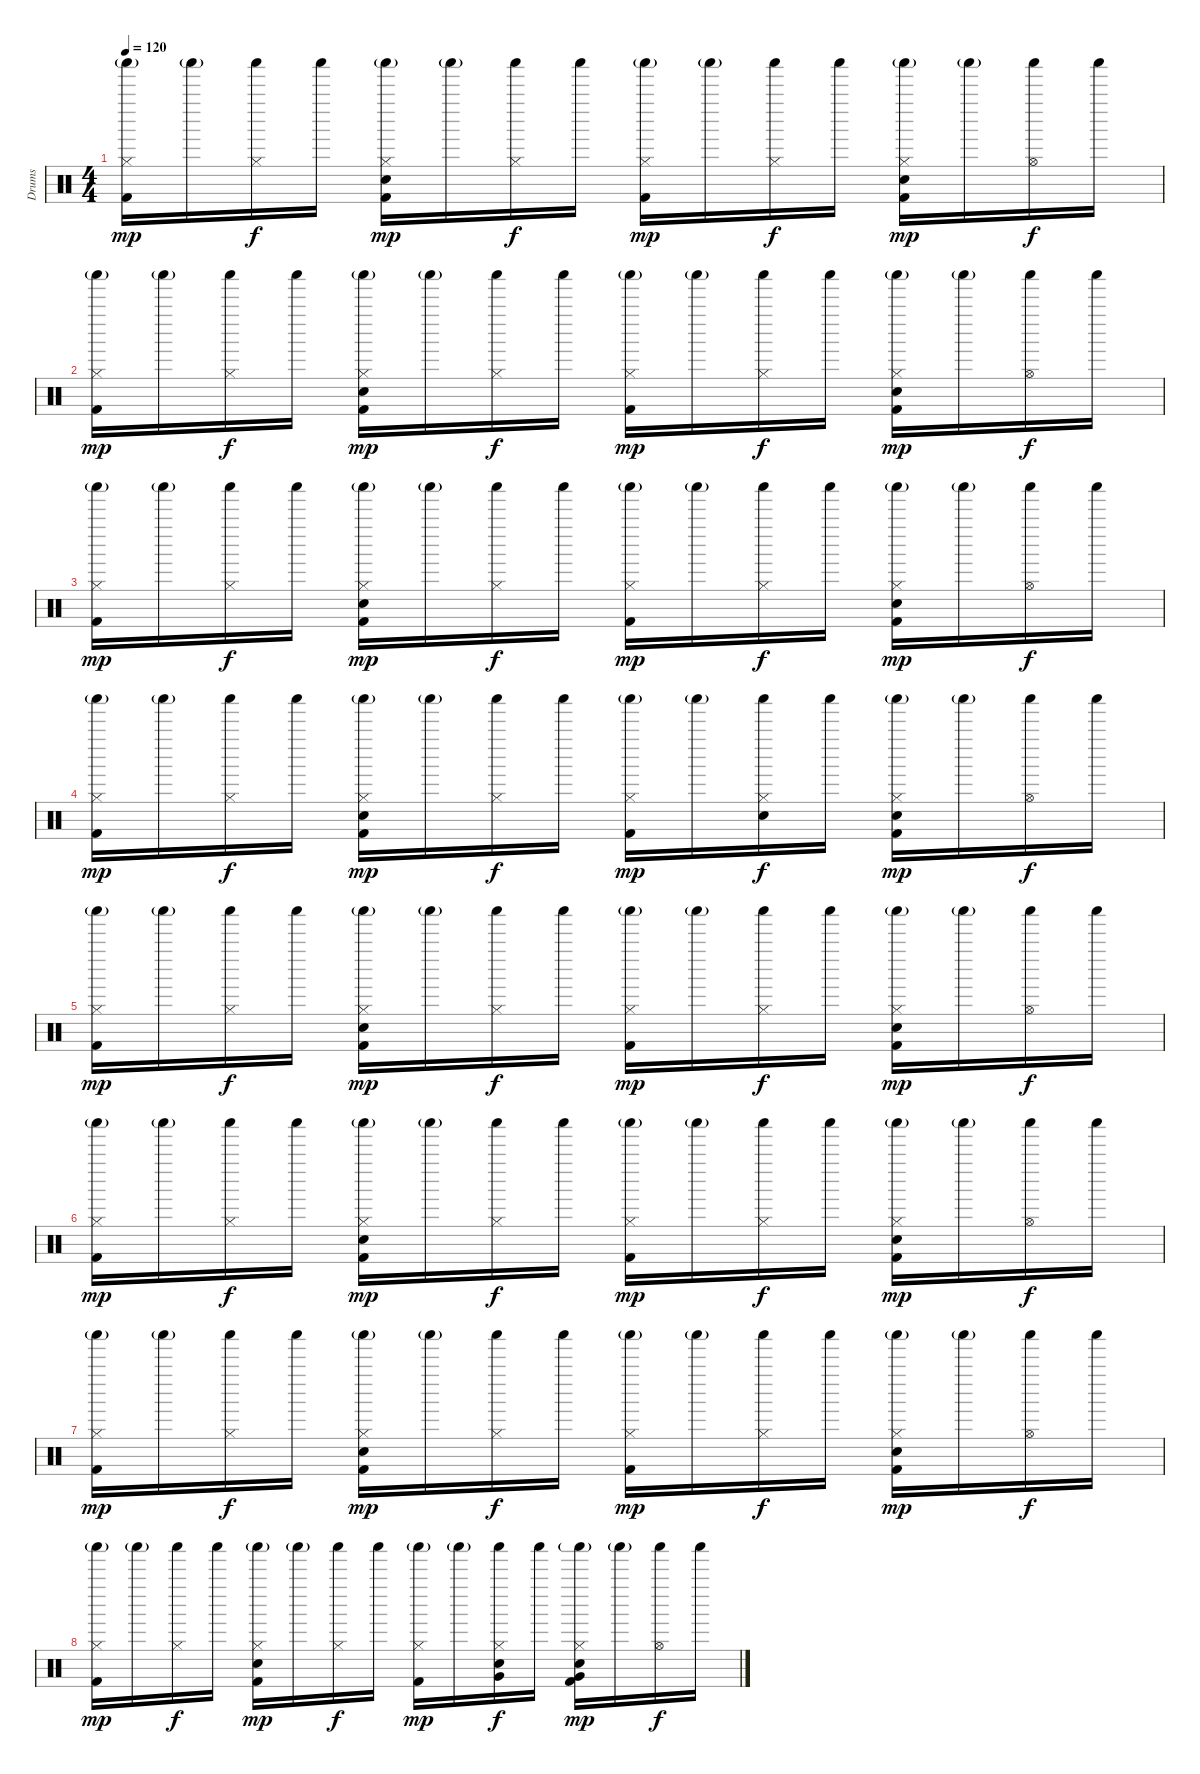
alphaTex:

\track ("Drums" "Drums") {instrument percussion}
\staff {score}
\articulation defaults
\ts (4 4)
\tempo 120
\clef neutral
\ks c
("Hi-Hat (closed)" "Shaker (hit)"{g} "Kick (hit) 2").16{dy mp} "Shaker (hit)"{g}.16 ("Hi-Hat (closed)" "Shaker (hit)").16{dy f} "Shaker (hit)".16 ("Hi-Hat (closed)" "Shaker (hit)"{g} "Electric Snare (hit)" "Kick (hit) 2").16{dy mp} "Shaker (hit)"{g}.16 ("Hi-Hat (closed)" "Shaker (hit)").16{dy f} "Shaker (hit)".16 ("Hi-Hat (closed)" "Shaker (hit)"{g} "Kick (hit) 2").16{dy mp} "Shaker (hit)"{g}.16 ("Hi-Hat (closed)" "Shaker (hit)").16{dy f} "Shaker (hit)".16 ("Hi-Hat (closed)" "Shaker (hit)"{g} "Electric Snare (hit)" "Kick (hit) 2").16{dy mp} "Shaker (hit)"{g}.16 ("Hi-Hat (open)" "Shaker (hit)").16{dy f} "Shaker (hit)".16 |
("Hi-Hat (closed)" "Shaker (hit)"{g} "Kick (hit) 2").16{dy mp} "Shaker (hit)"{g}.16 ("Hi-Hat (closed)" "Shaker (hit)").16{dy f} "Shaker (hit)".16 ("Hi-Hat (closed)" "Shaker (hit)"{g} "Electric Snare (hit)" "Kick (hit) 2").16{dy mp} "Shaker (hit)"{g}.16 ("Hi-Hat (closed)" "Shaker (hit)").16{dy f} "Shaker (hit)".16 ("Hi-Hat (closed)" "Shaker (hit)"{g} "Kick (hit) 2").16{dy mp} "Shaker (hit)"{g}.16 ("Hi-Hat (closed)" "Shaker (hit)").16{dy f} "Shaker (hit)".16 ("Hi-Hat (closed)" "Shaker (hit)"{g} "Electric Snare (hit)" "Kick (hit) 2").16{dy mp} "Shaker (hit)"{g}.16 ("Hi-Hat (open)" "Shaker (hit)").16{dy f} "Shaker (hit)".16 |
("Hi-Hat (closed)" "Shaker (hit)"{g} "Kick (hit) 2").16{dy mp} "Shaker (hit)"{g}.16 ("Hi-Hat (closed)" "Shaker (hit)").16{dy f} "Shaker (hit)".16 ("Hi-Hat (closed)" "Shaker (hit)"{g} "Electric Snare (hit)" "Kick (hit) 2").16{dy mp} "Shaker (hit)"{g}.16 ("Hi-Hat (closed)" "Shaker (hit)").16{dy f} "Shaker (hit)".16 ("Hi-Hat (closed)" "Shaker (hit)"{g} "Kick (hit) 2").16{dy mp} "Shaker (hit)"{g}.16 ("Hi-Hat (closed)" "Shaker (hit)").16{dy f} "Shaker (hit)".16 ("Hi-Hat (closed)" "Shaker (hit)"{g} "Electric Snare (hit)" "Kick (hit) 2").16{dy mp} "Shaker (hit)"{g}.16 ("Hi-Hat (open)" "Shaker (hit)").16{dy f} "Shaker (hit)".16 |
("Hi-Hat (closed)" "Shaker (hit)"{g} "Kick (hit) 2").16{dy mp} "Shaker (hit)"{g}.16 ("Hi-Hat (closed)" "Shaker (hit)").16{dy f} "Shaker (hit)".16 ("Hi-Hat (closed)" "Shaker (hit)"{g} "Electric Snare (hit)" "Kick (hit) 2").16{dy mp} "Shaker (hit)"{g}.16 ("Hi-Hat (closed)" "Shaker (hit)").16{dy f} "Shaker (hit)".16 ("Hi-Hat (closed)" "Shaker (hit)"{g} "Kick (hit) 2").16{dy mp} "Shaker (hit)"{g}.16 ("Hi-Hat (closed)" "Shaker (hit)" "Electric Snare (hit)").16{dy f} "Shaker (hit)".16 ("Hi-Hat (closed)" "Shaker (hit)"{g} "Electric Snare (hit)" "Kick (hit) 2").16{dy mp} "Shaker (hit)"{g}.16 ("Hi-Hat (open)" "Shaker (hit)").16{dy f} "Shaker (hit)".16 |
("Hi-Hat (closed)" "Shaker (hit)"{g} "Kick (hit) 2").16{dy mp} "Shaker (hit)"{g}.16 ("Hi-Hat (closed)" "Shaker (hit)").16{dy f} "Shaker (hit)".16 ("Hi-Hat (closed)" "Shaker (hit)"{g} "Electric Snare (hit)" "Kick (hit) 2").16{dy mp} "Shaker (hit)"{g}.16 ("Hi-Hat (closed)" "Shaker (hit)").16{dy f} "Shaker (hit)".16 ("Hi-Hat (closed)" "Shaker (hit)"{g} "Kick (hit) 2").16{dy mp} "Shaker (hit)"{g}.16 ("Hi-Hat (closed)" "Shaker (hit)").16{dy f} "Shaker (hit)".16 ("Hi-Hat (closed)" "Shaker (hit)"{g} "Electric Snare (hit)" "Kick (hit) 2").16{dy mp} "Shaker (hit)"{g}.16 ("Hi-Hat (open)" "Shaker (hit)").16{dy f} "Shaker (hit)".16 |
("Hi-Hat (closed)" "Shaker (hit)"{g} "Kick (hit) 2").16{dy mp} "Shaker (hit)"{g}.16 ("Hi-Hat (closed)" "Shaker (hit)").16{dy f} "Shaker (hit)".16 ("Hi-Hat (closed)" "Shaker (hit)"{g} "Electric Snare (hit)" "Kick (hit) 2").16{dy mp} "Shaker (hit)"{g}.16 ("Hi-Hat (closed)" "Shaker (hit)").16{dy f} "Shaker (hit)".16 ("Hi-Hat (closed)" "Shaker (hit)"{g} "Kick (hit) 2").16{dy mp} "Shaker (hit)"{g}.16 ("Hi-Hat (closed)" "Shaker (hit)").16{dy f} "Shaker (hit)".16 ("Hi-Hat (closed)" "Shaker (hit)"{g} "Electric Snare (hit)" "Kick (hit) 2").16{dy mp} "Shaker (hit)"{g}.16 ("Hi-Hat (open)" "Shaker (hit)").16{dy f} "Shaker (hit)".16 |
("Hi-Hat (closed)" "Shaker (hit)"{g} "Kick (hit) 2").16{dy mp} "Shaker (hit)"{g}.16 ("Hi-Hat (closed)" "Shaker (hit)").16{dy f} "Shaker (hit)".16 ("Hi-Hat (closed)" "Shaker (hit)"{g} "Electric Snare (hit)" "Kick (hit) 2").16{dy mp} "Shaker (hit)"{g}.16 ("Hi-Hat (closed)" "Shaker (hit)").16{dy f} "Shaker (hit)".16 ("Hi-Hat (closed)" "Shaker (hit)"{g} "Kick (hit) 2").16{dy mp} "Shaker (hit)"{g}.16 ("Hi-Hat (closed)" "Shaker (hit)").16{dy f} "Shaker (hit)".16 ("Hi-Hat (closed)" "Shaker (hit)"{g} "Electric Snare (hit)" "Kick (hit) 2").16{dy mp} "Shaker (hit)"{g}.16 ("Hi-Hat (open)" "Shaker (hit)").16{dy f} "Shaker (hit)".16 |
("Hi-Hat (closed)" "Shaker (hit)"{g} "Kick (hit) 2").16{dy mp} "Shaker (hit)"{g}.16 ("Hi-Hat (closed)" "Shaker (hit)").16{dy f} "Shaker (hit)".16 ("Hi-Hat (closed)" "Shaker (hit)"{g} "Electric Snare (hit)" "Kick (hit) 2").16{dy mp} "Shaker (hit)"{g}.16 ("Hi-Hat (closed)" "Shaker (hit)").16{dy f} "Shaker (hit)".16 ("Hi-Hat (closed)" "Shaker (hit)"{g} "Kick (hit) 2").16{dy mp} "Shaker (hit)"{g}.16 ("Hi-Hat (closed)" "Shaker (hit)" "Very Low Tom (hit)" "Electric Snare (hit)").16{dy f} "Shaker (hit)".16 ("Hi-Hat (closed)" "Shaker (hit)"{g} "Very Low Tom (hit)" "Electric Snare (hit)" "Kick (hit) 2").16{dy mp} "Shaker (hit)"{g}.16 ("Hi-Hat (open)" "Shaker (hit)").16{dy f} "Shaker (hit)".16
